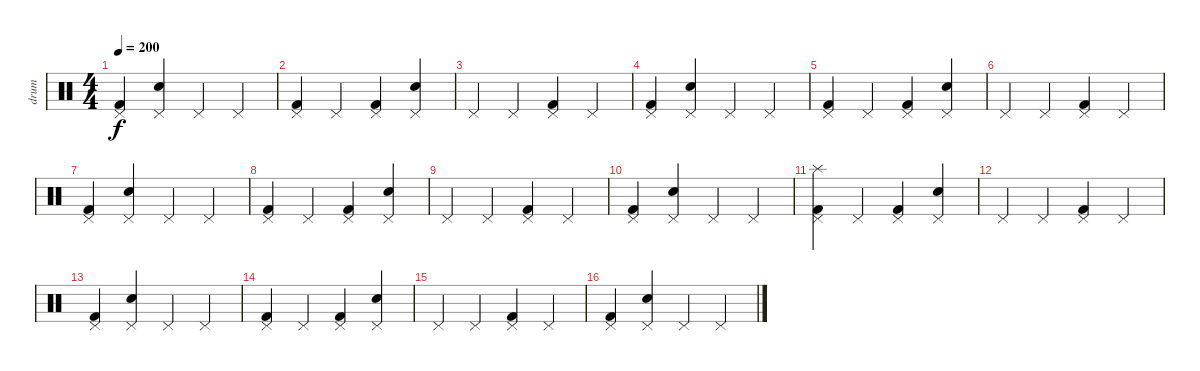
\track ("drum" "drum") {instrument percussion}
\staff {score}
\articulation defaults
\ts (4 4)
\tempo 200
\clef neutral
\ks c
("Pedal Hi-Hat (hit)" "Kick (hit) 2").4{dy f} ("Pedal Hi-Hat (hit)" "Electric Snare (hit)").4 "Pedal Hi-Hat (hit)".4 "Pedal Hi-Hat (hit)".4 |
("Pedal Hi-Hat (hit)" "Kick (hit) 2").4 "Pedal Hi-Hat (hit)".4 ("Pedal Hi-Hat (hit)" "Kick (hit) 2").4 ("Pedal Hi-Hat (hit)" "Electric Snare (hit)").4 |
"Pedal Hi-Hat (hit)".4 "Pedal Hi-Hat (hit)".4 ("Pedal Hi-Hat (hit)" "Kick (hit) 2").4 "Pedal Hi-Hat (hit)".4 |
("Pedal Hi-Hat (hit)" "Kick (hit) 2").4 ("Pedal Hi-Hat (hit)" "Electric Snare (hit)").4 "Pedal Hi-Hat (hit)".4 "Pedal Hi-Hat (hit)".4 |
("Pedal Hi-Hat (hit)" "Kick (hit) 2").4 "Pedal Hi-Hat (hit)".4 ("Pedal Hi-Hat (hit)" "Kick (hit) 2").4 ("Pedal Hi-Hat (hit)" "Electric Snare (hit)").4 |
"Pedal Hi-Hat (hit)".4 "Pedal Hi-Hat (hit)".4 ("Pedal Hi-Hat (hit)" "Kick (hit) 2").4 "Pedal Hi-Hat (hit)".4 |
("Pedal Hi-Hat (hit)" "Kick (hit) 2").4 ("Pedal Hi-Hat (hit)" "Electric Snare (hit)").4 "Pedal Hi-Hat (hit)".4 "Pedal Hi-Hat (hit)".4 |
("Pedal Hi-Hat (hit)" "Kick (hit) 2").4 "Pedal Hi-Hat (hit)".4 ("Pedal Hi-Hat (hit)" "Kick (hit) 2").4 ("Pedal Hi-Hat (hit)" "Electric Snare (hit)").4 |
"Pedal Hi-Hat (hit)".4 "Pedal Hi-Hat (hit)".4 ("Pedal Hi-Hat (hit)" "Kick (hit) 2").4 "Pedal Hi-Hat (hit)".4 |
("Pedal Hi-Hat (hit)" "Kick (hit) 2").4 ("Pedal Hi-Hat (hit)" "Electric Snare (hit)").4 "Pedal Hi-Hat (hit)".4 "Pedal Hi-Hat (hit)".4 |
("Pedal Hi-Hat (hit)" "Splash (hit)" "Kick (hit) 2").4 "Pedal Hi-Hat (hit)".4 ("Pedal Hi-Hat (hit)" "Kick (hit) 2").4 ("Pedal Hi-Hat (hit)" "Electric Snare (hit)").4 |
"Pedal Hi-Hat (hit)".4 "Pedal Hi-Hat (hit)".4 ("Pedal Hi-Hat (hit)" "Kick (hit) 2").4 "Pedal Hi-Hat (hit)".4 |
("Pedal Hi-Hat (hit)" "Kick (hit) 2").4 ("Pedal Hi-Hat (hit)" "Electric Snare (hit)").4 "Pedal Hi-Hat (hit)".4 "Pedal Hi-Hat (hit)".4 |
("Pedal Hi-Hat (hit)" "Kick (hit) 2").4 "Pedal Hi-Hat (hit)".4 ("Pedal Hi-Hat (hit)" "Kick (hit) 2").4 ("Pedal Hi-Hat (hit)" "Electric Snare (hit)").4 |
"Pedal Hi-Hat (hit)".4 "Pedal Hi-Hat (hit)".4 ("Pedal Hi-Hat (hit)" "Kick (hit) 2").4 "Pedal Hi-Hat (hit)".4 |
("Pedal Hi-Hat (hit)" "Kick (hit) 2").4 ("Pedal Hi-Hat (hit)" "Electric Snare (hit)").4 "Pedal Hi-Hat (hit)".4 "Pedal Hi-Hat (hit)".4
